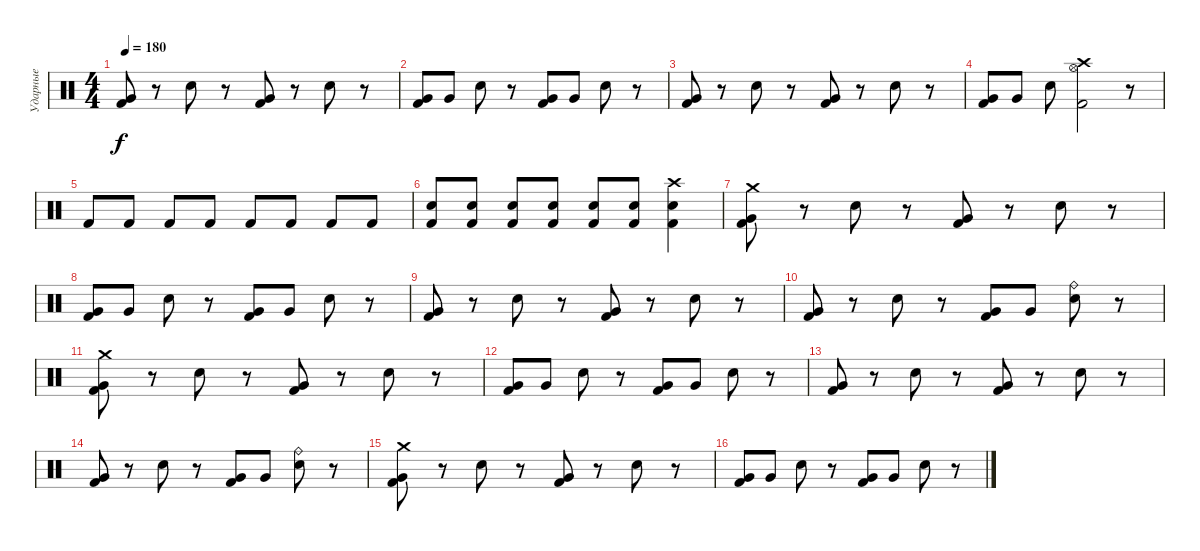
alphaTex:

\track ("Ударные" "Ударные") {instrument percussion}
\staff {score}
\articulation defaults
\ts (4 4)
\tempo 180
\clef neutral
\ks c
("Very Low Tom (hit)" "Kick (hit) 2").8{dy f} r.8 "Electric Snare (hit)".8 r.8 ("Very Low Tom (hit)" "Kick (hit) 2").8 r.8 "Electric Snare (hit)".8 r.8 |
("Very Low Tom (hit)" "Kick (hit) 2").8 "Very Low Tom (hit)".8 "Electric Snare (hit)".8 r.8 ("Very Low Tom (hit)" "Kick (hit) 2").8 "Very Low Tom (hit)".8 "Electric Snare (hit)".8 r.8 |
("Very Low Tom (hit)" "Kick (hit) 2").8 r.8 "Electric Snare (hit)".8 r.8 ("Very Low Tom (hit)" "Kick (hit) 2").8 r.8 "Electric Snare (hit)".8 r.8 |
("Very Low Tom (hit)" "Kick (hit) 2").8 "Very Low Tom (hit)".8 "Electric Snare (hit)".8 ("Hi-Hat (open)" "Crash high (hit)" "Kick (hit) 2").2 r.8 |
"Kick (hit) 2".8 "Kick (hit) 2".8 "Kick (hit) 2".8 "Kick (hit) 2".8 "Kick (hit) 2".8 "Kick (hit) 2".8 "Kick (hit) 2".8 "Kick (hit) 2".8 |
("Electric Snare (hit)" "Kick (hit) 2").8 ("Electric Snare (hit)" "Kick (hit) 2").8 ("Electric Snare (hit)" "Kick (hit) 2").8 ("Electric Snare (hit)" "Kick (hit) 2").8 ("Electric Snare (hit)" "Kick (hit) 2").8 ("Electric Snare (hit)" "Kick (hit) 2").8 ("Electric Snare (hit)" "Kick (hit) 2" "Crash high (hit)").4 |
("Crash medium (hit)" "Very Low Tom (hit)" "Kick (hit) 2").8 r.8 "Electric Snare (hit)".8 r.8 ("Very Low Tom (hit)" "Kick (hit) 2").8 r.8 "Electric Snare (hit)".8 r.8 |
("Very Low Tom (hit)" "Kick (hit) 2").8 "Very Low Tom (hit)".8 "Electric Snare (hit)".8 r.8 ("Very Low Tom (hit)" "Kick (hit) 2").8 "Very Low Tom (hit)".8 "Electric Snare (hit)".8 r.8 |
("Very Low Tom (hit)" "Kick (hit) 2").8 r.8 "Electric Snare (hit)".8 r.8 ("Very Low Tom (hit)" "Kick (hit) 2").8 r.8 "Electric Snare (hit)".8 r.8 |
("Very Low Tom (hit)" "Kick (hit) 2").8 r.8 "Electric Snare (hit)".8 r.8 ("Very Low Tom (hit)" "Kick (hit) 2").8 "Very Low Tom (hit)".8 ("Ride (bell)" "Electric Snare (hit)").8 r.8 |
("Crash medium (hit)" "Very Low Tom (hit)" "Kick (hit) 2").8 r.8 "Electric Snare (hit)".8 r.8 ("Very Low Tom (hit)" "Kick (hit) 2").8 r.8 "Electric Snare (hit)".8 r.8 |
("Very Low Tom (hit)" "Kick (hit) 2").8 "Very Low Tom (hit)".8 "Electric Snare (hit)".8 r.8 ("Very Low Tom (hit)" "Kick (hit) 2").8 "Very Low Tom (hit)".8 "Electric Snare (hit)".8 r.8 |
("Very Low Tom (hit)" "Kick (hit) 2").8 r.8 "Electric Snare (hit)".8 r.8 ("Very Low Tom (hit)" "Kick (hit) 2").8 r.8 "Electric Snare (hit)".8 r.8 |
("Very Low Tom (hit)" "Kick (hit) 2").8 r.8 "Electric Snare (hit)".8 r.8 ("Very Low Tom (hit)" "Kick (hit) 2").8 "Very Low Tom (hit)".8 ("Ride (bell)" "Electric Snare (hit)").8 r.8 |
("Crash medium (hit)" "Very Low Tom (hit)" "Kick (hit) 2").8 r.8 "Electric Snare (hit)".8 r.8 ("Very Low Tom (hit)" "Kick (hit) 2").8 r.8 "Electric Snare (hit)".8 r.8 |
("Very Low Tom (hit)" "Kick (hit) 2").8 "Very Low Tom (hit)".8 "Electric Snare (hit)".8 r.8 ("Very Low Tom (hit)" "Kick (hit) 2").8 "Very Low Tom (hit)".8 "Electric Snare (hit)".8 r.8
